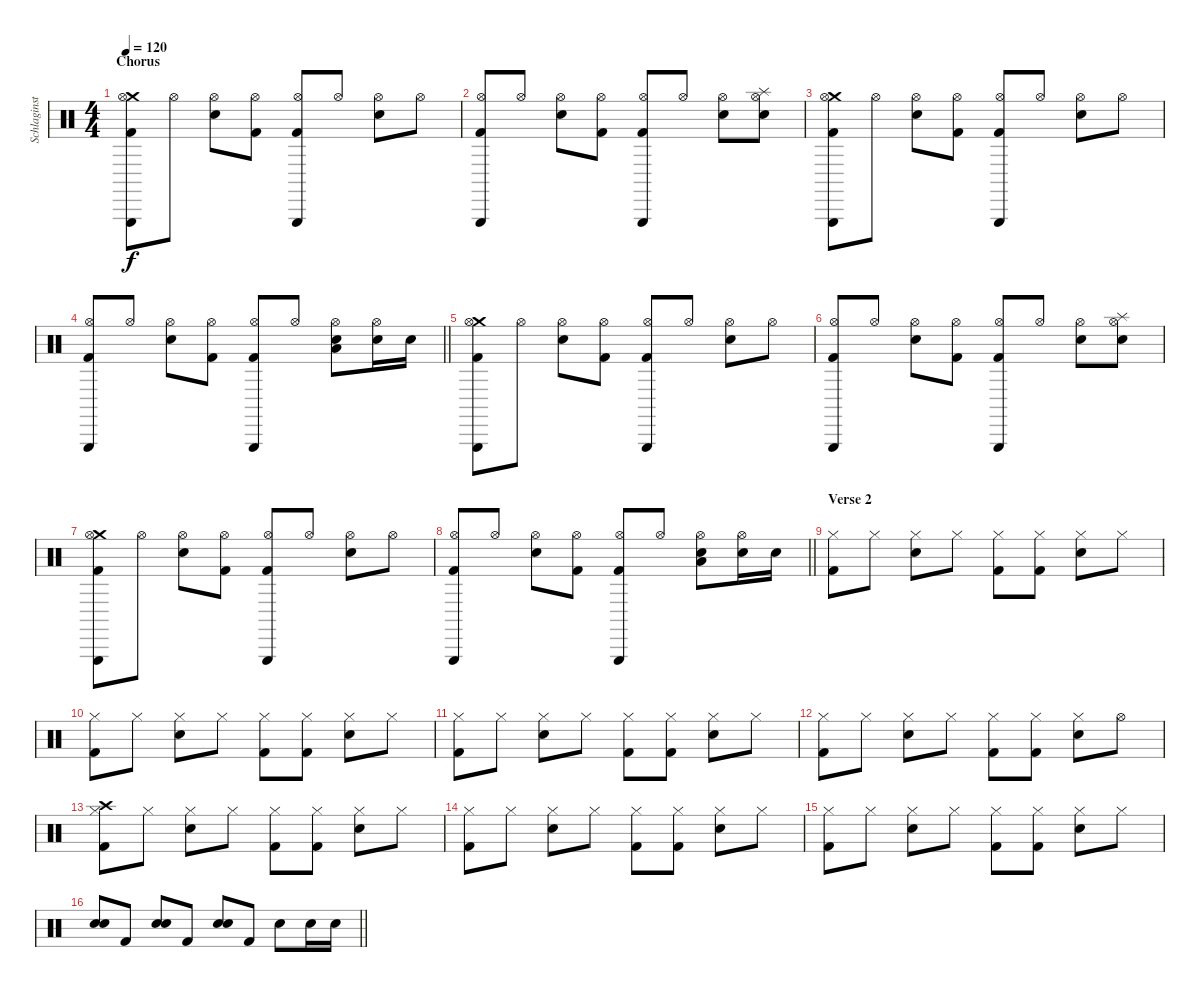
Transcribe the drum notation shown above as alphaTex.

\track ("Schlaginstrumente - Auswahl" "Schlaginst") {instrument percussion}
\staff {score}
\articulation defaults
\ts (4 4)
\section ("" "Chorus")
\tempo 120
\clef neutral
\ks c
("Crash medium (hit)" "Triangle (hit)" "Hi-Hat (open)" "Kick (hit) 2").8{dy f} "Hi-Hat (open)".8 ("Hi-Hat (open)" "Snare (hit) 2").8 ("Hi-Hat (open)" "Kick (hit) 2").8 ("Triangle (hit)" "Hi-Hat (open)" "Kick (hit) 2").8 "Hi-Hat (open)".8 ("Hi-Hat (open)" "Snare (hit) 2").8 "Hi-Hat (open)".8 |
("Triangle (hit)" "Hi-Hat (open)" "Kick (hit) 2").8 "Hi-Hat (open)".8 ("Hi-Hat (open)" "Snare (hit) 2").8 ("Hi-Hat (open)" "Kick (hit) 2").8 ("Triangle (hit)" "Hi-Hat (open)" "Kick (hit) 2").8 "Hi-Hat (open)".8 ("Hi-Hat (open)" "Snare (hit) 2").8 ("Splash (hit)" "Hi-Hat (open)" "Snare (hit) 2").8 |
("Crash medium (hit)" "Triangle (hit)" "Hi-Hat (open)" "Kick (hit) 2").8 "Hi-Hat (open)".8 ("Hi-Hat (open)" "Snare (hit) 2").8 ("Hi-Hat (open)" "Kick (hit) 2").8 ("Triangle (hit)" "Hi-Hat (open)" "Kick (hit) 2").8 "Hi-Hat (open)".8 ("Hi-Hat (open)" "Snare (hit) 2").8 "Hi-Hat (open)".8 |
\barLineRight lightlight
("Triangle (hit)" "Hi-Hat (open)" "Kick (hit) 2").8 "Hi-Hat (open)".8 ("Hi-Hat (open)" "Snare (hit) 2").8 ("Hi-Hat (open)" "Kick (hit) 2").8 ("Triangle (hit)" "Hi-Hat (open)" "Kick (hit) 2").8 "Hi-Hat (open)".8 ("Low Tom (hit)" "Hi-Hat (open)" "Snare (hit) 2").8 ("Hi-Hat (open)" "Snare (hit) 2").16 "Snare (hit) 2".16 |
("Crash medium (hit)" "Triangle (hit)" "Hi-Hat (open)" "Kick (hit) 2").8 "Hi-Hat (open)".8 ("Hi-Hat (open)" "Snare (hit) 2").8 ("Hi-Hat (open)" "Kick (hit) 2").8 ("Triangle (hit)" "Hi-Hat (open)" "Kick (hit) 2").8 "Hi-Hat (open)".8 ("Hi-Hat (open)" "Snare (hit) 2").8 "Hi-Hat (open)".8 |
("Triangle (hit)" "Hi-Hat (open)" "Kick (hit) 2").8 "Hi-Hat (open)".8 ("Hi-Hat (open)" "Snare (hit) 2").8 ("Hi-Hat (open)" "Kick (hit) 2").8 ("Triangle (hit)" "Hi-Hat (open)" "Kick (hit) 2").8 "Hi-Hat (open)".8 ("Hi-Hat (open)" "Snare (hit) 2").8 ("Splash (hit)" "Hi-Hat (open)" "Snare (hit) 2").8 |
("Crash medium (hit)" "Triangle (hit)" "Hi-Hat (open)" "Kick (hit) 2").8 "Hi-Hat (open)".8 ("Hi-Hat (open)" "Snare (hit) 2").8 ("Hi-Hat (open)" "Kick (hit) 2").8 ("Triangle (hit)" "Hi-Hat (open)" "Kick (hit) 2").8 "Hi-Hat (open)".8 ("Hi-Hat (open)" "Snare (hit) 2").8 "Hi-Hat (open)".8 |
\barLineRight lightlight
("Triangle (hit)" "Hi-Hat (open)" "Kick (hit) 2").8 "Hi-Hat (open)".8 ("Hi-Hat (open)" "Snare (hit) 2").8 ("Hi-Hat (open)" "Kick (hit) 2").8 ("Triangle (hit)" "Hi-Hat (open)" "Kick (hit) 2").8 "Hi-Hat (open)".8 ("Low Tom (hit)" "Hi-Hat (open)" "Snare (hit) 2").8 ("Hi-Hat (open)" "Snare (hit) 2").16 "Snare (hit) 2".16 |
\section ("" "Verse 2")
("Hi-Hat (closed)" "Kick (hit) 2").8 "Hi-Hat (closed)".8 ("Hi-Hat (closed)" "Snare (hit) 2").8 "Hi-Hat (closed)".8 ("Hi-Hat (closed)" "Kick (hit) 2").8 ("Hi-Hat (closed)" "Kick (hit) 2").8 ("Hi-Hat (closed)" "Snare (hit) 2").8 "Hi-Hat (closed)".8 |
("Hi-Hat (closed)" "Kick (hit) 2").8 "Hi-Hat (closed)".8 ("Hi-Hat (closed)" "Snare (hit) 2").8 "Hi-Hat (closed)".8 ("Hi-Hat (closed)" "Kick (hit) 2").8 ("Hi-Hat (closed)" "Kick (hit) 2").8 ("Hi-Hat (closed)" "Snare (hit) 2").8 "Hi-Hat (closed)".8 |
("Hi-Hat (closed)" "Kick (hit) 2").8 "Hi-Hat (closed)".8 ("Hi-Hat (closed)" "Snare (hit) 2").8 "Hi-Hat (closed)".8 ("Hi-Hat (closed)" "Kick (hit) 2").8 ("Hi-Hat (closed)" "Kick (hit) 2").8 ("Hi-Hat (closed)" "Snare (hit) 2").8 "Hi-Hat (closed)".8 |
("Hi-Hat (closed)" "Kick (hit) 2").8 "Hi-Hat (closed)".8 ("Hi-Hat (closed)" "Snare (hit) 2").8 "Hi-Hat (closed)".8 ("Hi-Hat (closed)" "Kick (hit) 2").8 ("Hi-Hat (closed)" "Kick (hit) 2").8 ("Hi-Hat (closed)" "Snare (hit) 2").8 "Hi-Hat (open)".8 |
("Crash high (hit)" "Hi-Hat (closed)" "Kick (hit) 2").8 "Hi-Hat (closed)".8 ("Hi-Hat (closed)" "Snare (hit) 2").8 "Hi-Hat (closed)".8 ("Hi-Hat (closed)" "Kick (hit) 2").8 ("Hi-Hat (closed)" "Kick (hit) 2").8 ("Hi-Hat (closed)" "Snare (hit) 2").8 "Hi-Hat (closed)".8 |
("Hi-Hat (closed)" "Kick (hit) 2").8 "Hi-Hat (closed)".8 ("Hi-Hat (closed)" "Snare (hit) 2").8 "Hi-Hat (closed)".8 ("Hi-Hat (closed)" "Kick (hit) 2").8 ("Hi-Hat (closed)" "Kick (hit) 2").8 ("Hi-Hat (closed)" "Snare (hit) 2").8 "Hi-Hat (closed)".8 |
("Hi-Hat (closed)" "Kick (hit) 2").8 "Hi-Hat (closed)".8 ("Hi-Hat (closed)" "Snare (hit) 2").8 "Hi-Hat (closed)".8 ("Hi-Hat (closed)" "Kick (hit) 2").8 ("Hi-Hat (closed)" "Kick (hit) 2").8 ("Hi-Hat (closed)" "Snare (hit) 2").8 "Hi-Hat (closed)".8 |
\barLineRight lightlight
("Snare (hit) 2" "Electric Snare (hit)").8 "Kick (hit) 2".8 ("Snare (hit) 2" "Electric Snare (hit)").8 "Kick (hit) 2".8 ("Snare (hit) 2" "Electric Snare (hit)").8 "Kick (hit) 2".8 "Snare (hit) 2".8 "Snare (hit) 2".16 "Snare (hit) 2".16
